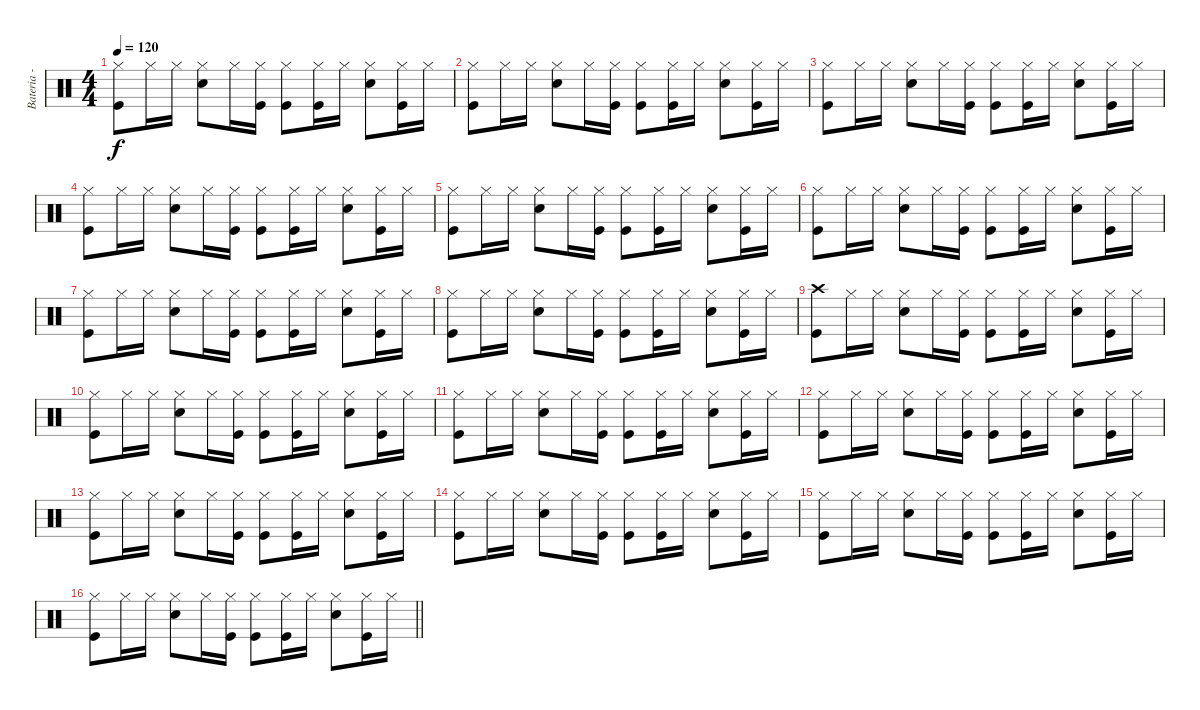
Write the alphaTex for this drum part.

\track ("Bateria - Joaquin" "Bateria - ") {instrument percussion}
\staff {score}
\articulation defaults
\ts (4 4)
\tempo 120
\clef neutral
\ks c
("Hi-Hat (closed)" "Kick (hit)").8{dy f} "Hi-Hat (closed)".16 "Hi-Hat (closed)".16 ("Hi-Hat (closed)" "Snare (hit) 2").8 "Hi-Hat (closed)".16 ("Hi-Hat (closed)" "Kick (hit)").16 ("Hi-Hat (closed)" "Kick (hit)").8 ("Hi-Hat (closed)" "Kick (hit)").16 "Hi-Hat (closed)".16 ("Hi-Hat (closed)" "Snare (hit) 2").8 ("Hi-Hat (closed)" "Kick (hit)").16 "Hi-Hat (closed)".16 |
("Hi-Hat (closed)" "Kick (hit)").8 "Hi-Hat (closed)".16 "Hi-Hat (closed)".16 ("Hi-Hat (closed)" "Snare (hit) 2").8 "Hi-Hat (closed)".16 ("Hi-Hat (closed)" "Kick (hit)").16 ("Hi-Hat (closed)" "Kick (hit)").8 ("Hi-Hat (closed)" "Kick (hit)").16 "Hi-Hat (closed)".16 ("Hi-Hat (closed)" "Snare (hit) 2").8 ("Hi-Hat (closed)" "Kick (hit)").16 "Hi-Hat (closed)".16 |
("Hi-Hat (closed)" "Kick (hit)").8 "Hi-Hat (closed)".16 "Hi-Hat (closed)".16 ("Hi-Hat (closed)" "Snare (hit) 2").8 "Hi-Hat (closed)".16 ("Hi-Hat (closed)" "Kick (hit)").16 ("Hi-Hat (closed)" "Kick (hit)").8 ("Hi-Hat (closed)" "Kick (hit)").16 "Hi-Hat (closed)".16 ("Hi-Hat (closed)" "Snare (hit) 2").8 ("Hi-Hat (closed)" "Kick (hit)").16 "Hi-Hat (closed)".16 |
("Hi-Hat (closed)" "Kick (hit)").8 "Hi-Hat (closed)".16 "Hi-Hat (closed)".16 ("Hi-Hat (closed)" "Snare (hit) 2").8 "Hi-Hat (closed)".16 ("Hi-Hat (closed)" "Kick (hit)").16 ("Hi-Hat (closed)" "Kick (hit)").8 ("Hi-Hat (closed)" "Kick (hit)").16 "Hi-Hat (closed)".16 ("Hi-Hat (closed)" "Snare (hit) 2").8 ("Hi-Hat (closed)" "Kick (hit)").16 "Hi-Hat (closed)".16 |
("Hi-Hat (closed)" "Kick (hit)").8 "Hi-Hat (closed)".16 "Hi-Hat (closed)".16 ("Hi-Hat (closed)" "Snare (hit) 2").8 "Hi-Hat (closed)".16 ("Hi-Hat (closed)" "Kick (hit)").16 ("Hi-Hat (closed)" "Kick (hit)").8 ("Hi-Hat (closed)" "Kick (hit)").16 "Hi-Hat (closed)".16 ("Hi-Hat (closed)" "Snare (hit) 2").8 ("Hi-Hat (closed)" "Kick (hit)").16 "Hi-Hat (closed)".16 |
("Hi-Hat (closed)" "Kick (hit)").8 "Hi-Hat (closed)".16 "Hi-Hat (closed)".16 ("Hi-Hat (closed)" "Snare (hit) 2").8 "Hi-Hat (closed)".16 ("Hi-Hat (closed)" "Kick (hit)").16 ("Hi-Hat (closed)" "Kick (hit)").8 ("Hi-Hat (closed)" "Kick (hit)").16 "Hi-Hat (closed)".16 ("Hi-Hat (closed)" "Snare (hit) 2").8 ("Hi-Hat (closed)" "Kick (hit)").16 "Hi-Hat (closed)".16 |
("Hi-Hat (closed)" "Kick (hit)").8 "Hi-Hat (closed)".16 "Hi-Hat (closed)".16 ("Hi-Hat (closed)" "Snare (hit) 2").8 "Hi-Hat (closed)".16 ("Hi-Hat (closed)" "Kick (hit)").16 ("Hi-Hat (closed)" "Kick (hit)").8 ("Hi-Hat (closed)" "Kick (hit)").16 "Hi-Hat (closed)".16 ("Hi-Hat (closed)" "Snare (hit) 2").8 ("Hi-Hat (closed)" "Kick (hit)").16 "Hi-Hat (closed)".16 |
("Hi-Hat (closed)" "Kick (hit)").8 "Hi-Hat (closed)".16 "Hi-Hat (closed)".16 ("Hi-Hat (closed)" "Snare (hit) 2").8 "Hi-Hat (closed)".16 ("Hi-Hat (closed)" "Kick (hit)").16 ("Hi-Hat (closed)" "Kick (hit)").8 ("Hi-Hat (closed)" "Kick (hit)").16 "Hi-Hat (closed)".16 ("Hi-Hat (closed)" "Snare (hit) 2").8 ("Hi-Hat (closed)" "Kick (hit)").16 "Hi-Hat (closed)".16 |
("Crash high (hit)" "Kick (hit)").8 "Hi-Hat (closed)".16 "Hi-Hat (closed)".16 ("Hi-Hat (closed)" "Snare (hit) 2").8 "Hi-Hat (closed)".16 ("Hi-Hat (closed)" "Kick (hit)").16 ("Hi-Hat (closed)" "Kick (hit)").8 ("Hi-Hat (closed)" "Kick (hit)").16 "Hi-Hat (closed)".16 ("Hi-Hat (closed)" "Snare (hit) 2").8 ("Hi-Hat (closed)" "Kick (hit)").16 "Hi-Hat (closed)".16 |
("Hi-Hat (closed)" "Kick (hit)").8 "Hi-Hat (closed)".16 "Hi-Hat (closed)".16 ("Hi-Hat (closed)" "Snare (hit) 2").8 "Hi-Hat (closed)".16 ("Hi-Hat (closed)" "Kick (hit)").16 ("Hi-Hat (closed)" "Kick (hit)").8 ("Hi-Hat (closed)" "Kick (hit)").16 "Hi-Hat (closed)".16 ("Hi-Hat (closed)" "Snare (hit) 2").8 ("Hi-Hat (closed)" "Kick (hit)").16 "Hi-Hat (closed)".16 |
("Hi-Hat (closed)" "Kick (hit)").8 "Hi-Hat (closed)".16 "Hi-Hat (closed)".16 ("Hi-Hat (closed)" "Snare (hit) 2").8 "Hi-Hat (closed)".16 ("Hi-Hat (closed)" "Kick (hit)").16 ("Hi-Hat (closed)" "Kick (hit)").8 ("Hi-Hat (closed)" "Kick (hit)").16 "Hi-Hat (closed)".16 ("Hi-Hat (closed)" "Snare (hit) 2").8 ("Hi-Hat (closed)" "Kick (hit)").16 "Hi-Hat (closed)".16 |
("Hi-Hat (closed)" "Kick (hit)").8 "Hi-Hat (closed)".16 "Hi-Hat (closed)".16 ("Hi-Hat (closed)" "Snare (hit) 2").8 "Hi-Hat (closed)".16 ("Hi-Hat (closed)" "Kick (hit)").16 ("Hi-Hat (closed)" "Kick (hit)").8 ("Hi-Hat (closed)" "Kick (hit)").16 "Hi-Hat (closed)".16 ("Hi-Hat (closed)" "Snare (hit) 2").8 ("Hi-Hat (closed)" "Kick (hit)").16 "Hi-Hat (closed)".16 |
("Hi-Hat (closed)" "Kick (hit)").8 "Hi-Hat (closed)".16 "Hi-Hat (closed)".16 ("Hi-Hat (closed)" "Snare (hit) 2").8 "Hi-Hat (closed)".16 ("Hi-Hat (closed)" "Kick (hit)").16 ("Hi-Hat (closed)" "Kick (hit)").8 ("Hi-Hat (closed)" "Kick (hit)").16 "Hi-Hat (closed)".16 ("Hi-Hat (closed)" "Snare (hit) 2").8 ("Hi-Hat (closed)" "Kick (hit)").16 "Hi-Hat (closed)".16 |
("Hi-Hat (closed)" "Kick (hit)").8 "Hi-Hat (closed)".16 "Hi-Hat (closed)".16 ("Hi-Hat (closed)" "Snare (hit) 2").8 "Hi-Hat (closed)".16 ("Hi-Hat (closed)" "Kick (hit)").16 ("Hi-Hat (closed)" "Kick (hit)").8 ("Hi-Hat (closed)" "Kick (hit)").16 "Hi-Hat (closed)".16 ("Hi-Hat (closed)" "Snare (hit) 2").8 ("Hi-Hat (closed)" "Kick (hit)").16 "Hi-Hat (closed)".16 |
("Hi-Hat (closed)" "Kick (hit)").8 "Hi-Hat (closed)".16 "Hi-Hat (closed)".16 ("Hi-Hat (closed)" "Snare (hit) 2").8 "Hi-Hat (closed)".16 ("Hi-Hat (closed)" "Kick (hit)").16 ("Hi-Hat (closed)" "Kick (hit)").8 ("Hi-Hat (closed)" "Kick (hit)").16 "Hi-Hat (closed)".16 ("Hi-Hat (closed)" "Snare (hit) 2").8 ("Hi-Hat (closed)" "Kick (hit)").16 "Hi-Hat (closed)".16 |
\barLineRight lightlight
("Hi-Hat (closed)" "Kick (hit)").8 "Hi-Hat (closed)".16 "Hi-Hat (closed)".16 ("Hi-Hat (closed)" "Snare (hit) 2").8 "Hi-Hat (closed)".16 ("Hi-Hat (closed)" "Kick (hit)").16 ("Hi-Hat (closed)" "Kick (hit)").8 ("Hi-Hat (closed)" "Kick (hit)").16 "Hi-Hat (closed)".16 ("Hi-Hat (closed)" "Snare (hit) 2").8 ("Hi-Hat (closed)" "Kick (hit)").16 "Hi-Hat (closed)".16
